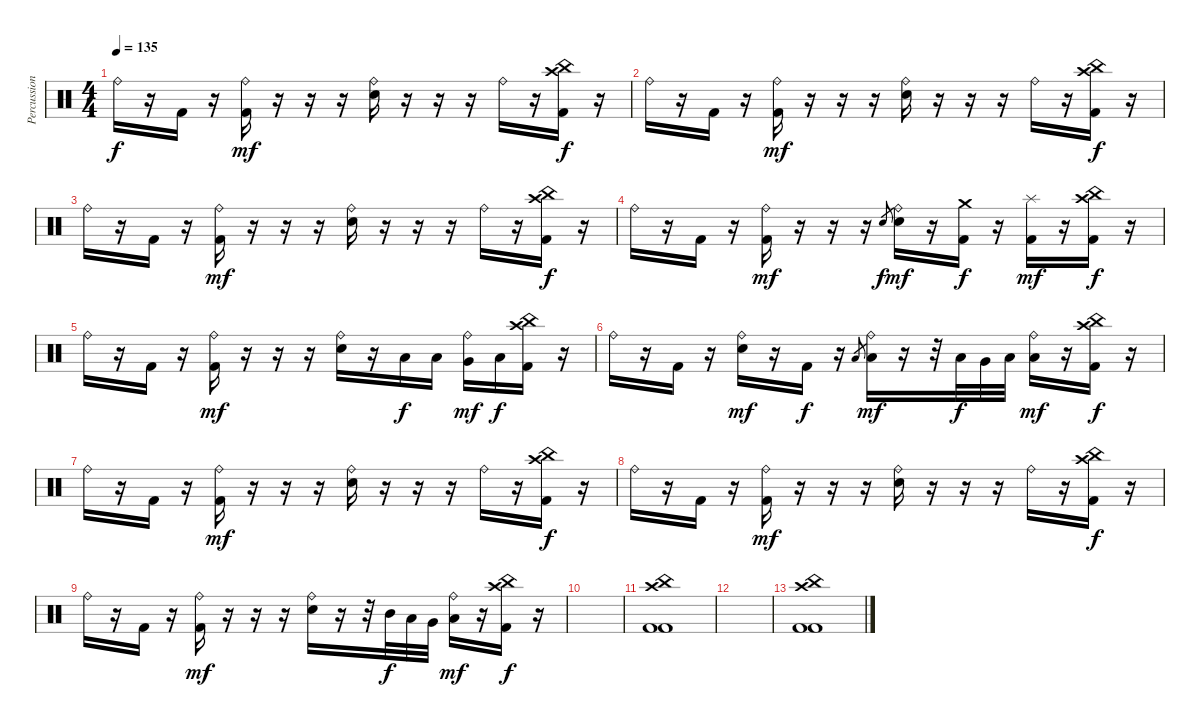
\track ("Percussion" "Percussion") {instrument percussion}
\staff {score}
\articulation defaults
\ts (4 4)
\tempo 135
\clef neutral
\ks c "Ride (bell)".16{dy f}
r.16 "Kick (hit) 2".16 r.16 ("Ride (bell)" "Kick (hit) 2").16{dy mf} r.16 r.16 r.16 ("Ride (bell)" "Electric Snare (hit)").16 r.16 r.16 r.16 "Ride (bell)".16 r.16 ("Crash high (hit)" "China (hit)" "Kick (hit) 2").16{dy f} r.16 |
"Ride (bell)".16 r.16 "Kick (hit) 2".16 r.16 ("Ride (bell)" "Kick (hit) 2").16{dy mf} r.16 r.16 r.16 ("Ride (bell)" "Electric Snare (hit)").16 r.16 r.16 r.16 "Ride (bell)".16 r.16 ("Crash high (hit)" "China (hit)" "Kick (hit) 2").16{dy f} r.16 |
"Ride (bell)".16 r.16 "Kick (hit) 2".16 r.16 ("Ride (bell)" "Kick (hit) 2").16{dy mf} r.16 r.16 r.16 ("Ride (bell)" "Electric Snare (hit)").16 r.16 r.16 r.16 "Ride (bell)".16 r.16 ("Crash high (hit)" "China (hit)" "Kick (hit) 2").16{dy f} r.16 |
"Ride (bell)".16 r.16 "Kick (hit) 2".16 r.16 ("Ride (bell)" "Kick (hit) 2").16{dy mf} r.16 r.16 r.16 "Electric Snare (hit)".8{gr dy f} ("Ride (bell)" "Electric Snare (hit)").16{dy mf} r.16 ("Crash medium (hit)" "Kick (hit) 2").16{dy f} r.16 ("Splash (hit)" "Kick (hit) 2").16{dy mf} r.16 ("Crash high (hit)" "China (hit)" "Kick (hit) 2").16{dy f} r.16 |
"Ride (bell)".16 r.16 "Kick (hit) 2".16 r.16 ("Ride (bell)" "Kick (hit) 2").16{dy mf} r.16 r.16 r.16 ("Ride (bell)" "Electric Snare (hit)").16 r.16 "Low Tom (hit)".16{dy f} "Low Tom (hit)".16 ("Ride (bell)" "Very Low Tom (hit)").16{dy mf} "Low Floor Tom (hit)".16{dy f} ("Crash high (hit)" "China (hit)" "Kick (hit) 2").16 r.16 |
"Ride (bell)".16 r.16 "Kick (hit) 2".16 r.16 ("Ride (bell)" "Electric Snare (hit)").16{dy mf} r.16 "Kick (hit) 2".16{dy f} r.16 "Low Tom (hit)".8{gr} ("Ride (bell)" "Low Tom (hit)").16{dy mf} r.16 r.32 "Low Tom (hit)".32{dy f} "Very Low Tom (hit)".32 "Low Floor Tom (hit)".32 ("Ride (bell)" "Low Floor Tom (hit)").16{dy mf} r.16 ("Crash high (hit)" "China (hit)" "Kick (hit) 2").16{dy f} r.16 |
"Ride (bell)".16 r.16 "Kick (hit) 2".16 r.16 ("Ride (bell)" "Kick (hit) 2").16{dy mf} r.16 r.16 r.16 ("Ride (bell)" "Electric Snare (hit)").16 r.16 r.16 r.16 "Ride (bell)".16 r.16 ("Crash high (hit)" "China (hit)" "Kick (hit) 2").16{dy f} r.16 |
"Ride (bell)".16 r.16 "Kick (hit) 2".16 r.16 ("Ride (bell)" "Kick (hit) 2").16{dy mf} r.16 r.16 r.16 ("Ride (bell)" "Electric Snare (hit)").16 r.16 r.16 r.16 "Ride (bell)".16 r.16 ("Crash high (hit)" "China (hit)" "Kick (hit) 2").16{dy f} r.16 |
"Ride (bell)".16 r.16 "Kick (hit) 2".16 r.16 ("Ride (bell)" "Kick (hit) 2").16{dy mf} r.16 r.16 r.16 ("Ride (bell)" "Electric Snare (hit)").16 r.16 r.32 "Mid Tom (hit)".32{dy f} "Low Tom (hit)".32 "Very Low Tom (hit)".32 ("Ride (bell)" "Low Floor Tom (hit)").16{dy mf} r.16 ("Crash high (hit)" "China (hit)" "Kick (hit) 2").16{dy f} r.16 |
|
("Crash high (hit)" "China (hit)" "Kick (hit) 2" "Kick (hit) 2").1 |
|
("Crash high (hit)" "China (hit)" "Kick (hit) 2" "Kick (hit) 2").1
